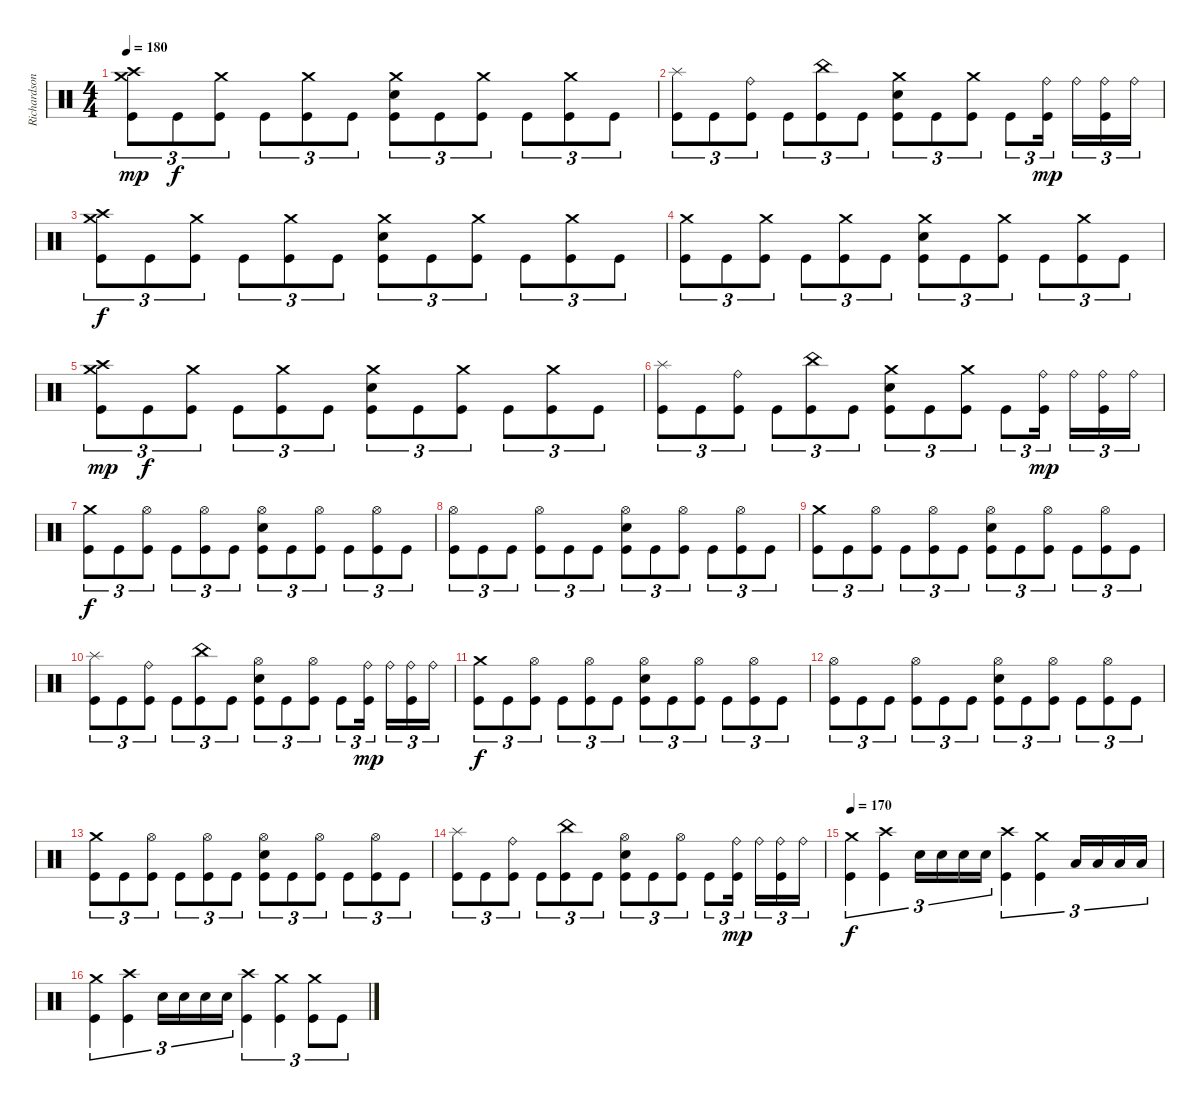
\track ("Richardson" "Richardson") {instrument percussion}
\staff {score}
\articulation defaults
\ts (4 4)
\tempo 180
\clef neutral
\ks c
("Crash medium (hit)" "Crash high (hit)" "Kick (hit)").8{tu (3 2) dy mp} "Kick (hit)".8{tu (3 2) dy f} ("Crash medium (hit)" "Kick (hit)").8{tu (3 2)} "Kick (hit)".8{tu (3 2)} ("Crash medium (hit)" "Kick (hit)").8{tu (3 2)} "Kick (hit)".8{tu (3 2)} ("Crash medium (hit)" "Electric Snare (hit)" "Kick (hit)").8{tu (3 2)} "Kick (hit)".8{tu (3 2)} ("Crash medium (hit)" "Kick (hit)").8{tu (3 2)} "Kick (hit)".8{tu (3 2)} ("Crash medium (hit)" "Kick (hit)").8{tu (3 2)} "Kick (hit)".8{tu (3 2)} |
("Splash (hit)" "Kick (hit)").8{tu (3 2)} "Kick (hit)".8{tu (3 2)} ("Ride (bell)" "Kick (hit)").8{tu (3 2)} "Kick (hit)".8{tu (3 2)} ("China (hit)" "Kick (hit)").8{tu (3 2)} "Kick (hit)".8{tu (3 2)} ("Crash medium (hit)" "Electric Snare (hit)" "Kick (hit)").8{tu (3 2)} "Kick (hit)".8{tu (3 2)} ("Crash medium (hit)" "Kick (hit)").8{tu (3 2)} "Kick (hit)".8{tu (3 2)} ("Ride (bell)" "Kick (hit)").16{tu (3 2) dy mp beam splitsecondary} "Ride (bell)".16{tu (3 2)} ("Ride (bell)" "Kick (hit)").16{tu (3 2)} "Ride (bell)".16{tu (3 2)} |
("Crash medium (hit)" "Crash high (hit)" "Kick (hit)").8{tu (3 2) dy f} "Kick (hit)".8{tu (3 2)} ("Crash medium (hit)" "Kick (hit)").8{tu (3 2)} "Kick (hit)".8{tu (3 2)} ("Crash medium (hit)" "Kick (hit)").8{tu (3 2)} "Kick (hit)".8{tu (3 2)} ("Crash medium (hit)" "Electric Snare (hit)" "Kick (hit)").8{tu (3 2)} "Kick (hit)".8{tu (3 2)} ("Crash medium (hit)" "Kick (hit)").8{tu (3 2)} "Kick (hit)".8{tu (3 2)} ("Crash medium (hit)" "Kick (hit)").8{tu (3 2)} "Kick (hit)".8{tu (3 2)} |
("Crash medium (hit)" "Kick (hit)").8{tu (3 2)} "Kick (hit)".8{tu (3 2)} ("Crash medium (hit)" "Kick (hit)").8{tu (3 2)} "Kick (hit)".8{tu (3 2)} ("Crash medium (hit)" "Kick (hit)").8{tu (3 2)} "Kick (hit)".8{tu (3 2)} ("Crash medium (hit)" "Electric Snare (hit)" "Kick (hit)").8{tu (3 2)} "Kick (hit)".8{tu (3 2)} ("Crash medium (hit)" "Kick (hit)").8{tu (3 2)} "Kick (hit)".8{tu (3 2)} ("Crash medium (hit)" "Kick (hit)").8{tu (3 2)} "Kick (hit)".8{tu (3 2)} |
("Crash medium (hit)" "Crash high (hit)" "Kick (hit)").8{tu (3 2) dy mp} "Kick (hit)".8{tu (3 2) dy f} ("Crash medium (hit)" "Kick (hit)").8{tu (3 2)} "Kick (hit)".8{tu (3 2)} ("Crash medium (hit)" "Kick (hit)").8{tu (3 2)} "Kick (hit)".8{tu (3 2)} ("Crash medium (hit)" "Electric Snare (hit)" "Kick (hit)").8{tu (3 2)} "Kick (hit)".8{tu (3 2)} ("Crash medium (hit)" "Kick (hit)").8{tu (3 2)} "Kick (hit)".8{tu (3 2)} ("Crash medium (hit)" "Kick (hit)").8{tu (3 2)} "Kick (hit)".8{tu (3 2)} |
("Splash (hit)" "Kick (hit)").8{tu (3 2)} "Kick (hit)".8{tu (3 2)} ("Ride (bell)" "Kick (hit)").8{tu (3 2)} "Kick (hit)".8{tu (3 2)} ("China (hit)" "Kick (hit)").8{tu (3 2)} "Kick (hit)".8{tu (3 2)} ("Crash medium (hit)" "Electric Snare (hit)" "Kick (hit)").8{tu (3 2)} "Kick (hit)".8{tu (3 2)} ("Crash medium (hit)" "Kick (hit)").8{tu (3 2)} "Kick (hit)".8{tu (3 2)} ("Ride (bell)" "Kick (hit)").16{tu (3 2) dy mp beam splitsecondary} "Ride (bell)".16{tu (3 2)} ("Ride (bell)" "Kick (hit)").16{tu (3 2)} "Ride (bell)".16{tu (3 2)} |
("Crash medium (hit)" "Kick (hit)").8{tu (3 2) dy f} "Kick (hit)".8{tu (3 2)} ("Hi-Hat (open)" "Kick (hit)").8{tu (3 2)} "Kick (hit)".8{tu (3 2)} ("Hi-Hat (open)" "Kick (hit)").8{tu (3 2)} "Kick (hit)".8{tu (3 2)} ("Hi-Hat (open)" "Electric Snare (hit)" "Kick (hit)").8{tu (3 2)} "Kick (hit)".8{tu (3 2)} ("Hi-Hat (open)" "Kick (hit)").8{tu (3 2)} "Kick (hit)".8{tu (3 2)} ("Hi-Hat (open)" "Kick (hit)").8{tu (3 2)} "Kick (hit)".8{tu (3 2)} |
("Hi-Hat (open)" "Kick (hit)").8{tu (3 2)} "Kick (hit)".8{tu (3 2)} "Kick (hit)".8{tu (3 2)} ("Hi-Hat (open)" "Kick (hit)").8{tu (3 2)} "Kick (hit)".8{tu (3 2)} "Kick (hit)".8{tu (3 2)} ("Hi-Hat (open)" "Electric Snare (hit)" "Kick (hit)").8{tu (3 2)} "Kick (hit)".8{tu (3 2)} ("Hi-Hat (open)" "Kick (hit)").8{tu (3 2)} "Kick (hit)".8{tu (3 2)} ("Hi-Hat (open)" "Kick (hit)").8{tu (3 2)} "Kick (hit)".8{tu (3 2)} |
("Crash medium (hit)" "Kick (hit)").8{tu (3 2)} "Kick (hit)".8{tu (3 2)} ("Hi-Hat (open)" "Kick (hit)").8{tu (3 2)} "Kick (hit)".8{tu (3 2)} ("Hi-Hat (open)" "Kick (hit)").8{tu (3 2)} "Kick (hit)".8{tu (3 2)} ("Hi-Hat (open)" "Electric Snare (hit)" "Kick (hit)").8{tu (3 2)} "Kick (hit)".8{tu (3 2)} ("Hi-Hat (open)" "Kick (hit)").8{tu (3 2)} "Kick (hit)".8{tu (3 2)} ("Hi-Hat (open)" "Kick (hit)").8{tu (3 2)} "Kick (hit)".8{tu (3 2)} |
("Splash (hit)" "Kick (hit)").8{tu (3 2)} "Kick (hit)".8{tu (3 2)} ("Ride (bell)" "Kick (hit)").8{tu (3 2)} "Kick (hit)".8{tu (3 2)} ("China (hit)" "Kick (hit)").8{tu (3 2)} "Kick (hit)".8{tu (3 2)} ("Hi-Hat (open)" "Electric Snare (hit)" "Kick (hit)").8{tu (3 2)} "Kick (hit)".8{tu (3 2)} ("Hi-Hat (open)" "Kick (hit)").8{tu (3 2)} "Kick (hit)".8{tu (3 2)} ("Ride (bell)" "Kick (hit)").16{tu (3 2) dy mp beam splitsecondary} "Ride (bell)".16{tu (3 2)} ("Ride (bell)" "Kick (hit)").16{tu (3 2)} "Ride (bell)".16{tu (3 2)} |
("Crash medium (hit)" "Kick (hit)").8{tu (3 2) dy f} "Kick (hit)".8{tu (3 2)} ("Hi-Hat (open)" "Kick (hit)").8{tu (3 2)} "Kick (hit)".8{tu (3 2)} ("Hi-Hat (open)" "Kick (hit)").8{tu (3 2)} "Kick (hit)".8{tu (3 2)} ("Hi-Hat (open)" "Electric Snare (hit)" "Kick (hit)").8{tu (3 2)} "Kick (hit)".8{tu (3 2)} ("Hi-Hat (open)" "Kick (hit)").8{tu (3 2)} "Kick (hit)".8{tu (3 2)} ("Hi-Hat (open)" "Kick (hit)").8{tu (3 2)} "Kick (hit)".8{tu (3 2)} |
("Hi-Hat (open)" "Kick (hit)").8{tu (3 2)} "Kick (hit)".8{tu (3 2)} "Kick (hit)".8{tu (3 2)} ("Hi-Hat (open)" "Kick (hit)").8{tu (3 2)} "Kick (hit)".8{tu (3 2)} "Kick (hit)".8{tu (3 2)} ("Hi-Hat (open)" "Electric Snare (hit)" "Kick (hit)").8{tu (3 2)} "Kick (hit)".8{tu (3 2)} ("Hi-Hat (open)" "Kick (hit)").8{tu (3 2)} "Kick (hit)".8{tu (3 2)} ("Hi-Hat (open)" "Kick (hit)").8{tu (3 2)} "Kick (hit)".8{tu (3 2)} |
("Crash medium (hit)" "Kick (hit)").8{tu (3 2)} "Kick (hit)".8{tu (3 2)} ("Hi-Hat (open)" "Kick (hit)").8{tu (3 2)} "Kick (hit)".8{tu (3 2)} ("Hi-Hat (open)" "Kick (hit)").8{tu (3 2)} "Kick (hit)".8{tu (3 2)} ("Hi-Hat (open)" "Electric Snare (hit)" "Kick (hit)").8{tu (3 2)} "Kick (hit)".8{tu (3 2)} ("Hi-Hat (open)" "Kick (hit)").8{tu (3 2)} "Kick (hit)".8{tu (3 2)} ("Hi-Hat (open)" "Kick (hit)").8{tu (3 2)} "Kick (hit)".8{tu (3 2)} |
("Splash (hit)" "Kick (hit)").8{tu (3 2)} "Kick (hit)".8{tu (3 2)} ("Ride (bell)" "Kick (hit)").8{tu (3 2)} "Kick (hit)".8{tu (3 2)} ("China (hit)" "Kick (hit)").8{tu (3 2)} "Kick (hit)".8{tu (3 2)} ("Hi-Hat (open)" "Electric Snare (hit)" "Kick (hit)").8{tu (3 2)} "Kick (hit)".8{tu (3 2)} ("Hi-Hat (open)" "Kick (hit)").8{tu (3 2)} "Kick (hit)".8{tu (3 2)} ("Ride (bell)" "Kick (hit)").16{tu (3 2) dy mp beam splitsecondary} "Ride (bell)".16{tu (3 2)} ("Ride (bell)" "Kick (hit)").16{tu (3 2)} "Ride (bell)".16{tu (3 2)} |
\tempo 170
("Crash medium (hit)" "Kick (hit)").4{tu (3 2) dy f} ("Crash high (hit)" "Kick (hit)").4{tu (3 2)} "Electric Snare (hit)".16{tu (3 2)} "Electric Snare (hit)".16{tu (3 2)} "Electric Snare (hit)".16{tu (3 2)} "Electric Snare (hit)".16{tu (3 2)} ("Crash high (hit)" "Kick (hit)").4{tu (3 2)} ("Crash medium (hit)" "Kick (hit)").4{tu (3 2)} "Low Floor Tom (hit)".16{tu (3 2)} "Low Floor Tom (hit)".16{tu (3 2)} "Low Floor Tom (hit)".16{tu (3 2)} "Low Floor Tom (hit)".16{tu (3 2)} |
("Crash medium (hit)" "Kick (hit)").4{tu (3 2)} ("Crash high (hit)" "Kick (hit)").4{tu (3 2)} "Electric Snare (hit)".16{tu (3 2)} "Electric Snare (hit)".16{tu (3 2)} "Electric Snare (hit)".16{tu (3 2)} "Electric Snare (hit)".16{tu (3 2)} ("Crash high (hit)" "Kick (hit)").4{tu (3 2)} ("Crash medium (hit)" "Kick (hit)").4{tu (3 2)} ("Crash medium (hit)" "Kick (hit)").8{tu (3 2)} "Kick (hit)".8{tu (3 2)}
